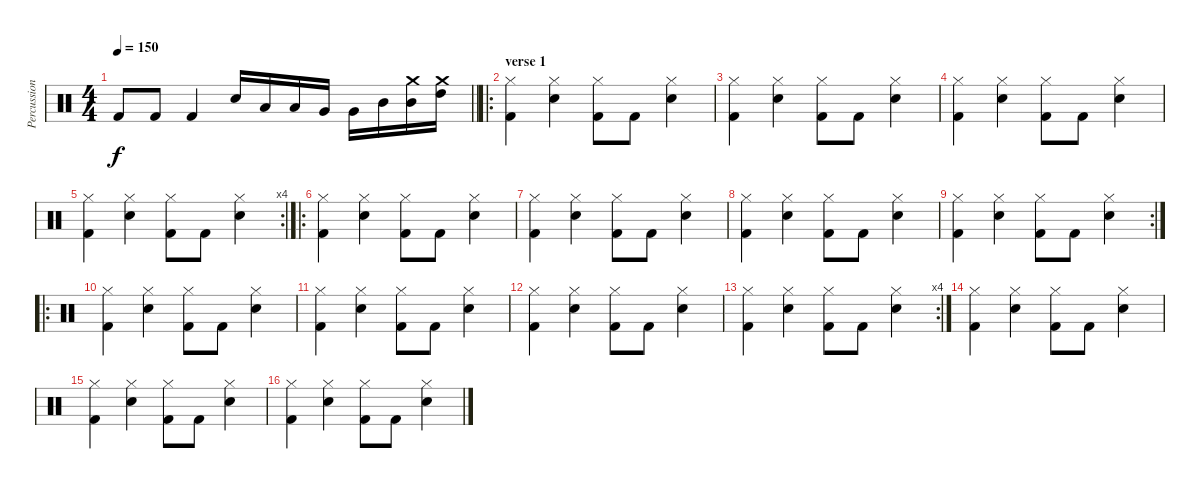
\track ("Percussions" "Percussion") {instrument percussion}
\staff {score}
\articulation defaults
\ts (4 4)
\tempo 150
\clef neutral
\barLineRight lightlight
\ks c "Kick (hit) 2".8{dy f} "Kick (hit) 2".8 "Kick (hit) 2".4 "Electric Snare (hit)".16 "Low Tom (hit)".16 "Low Tom (hit)".16 "Very Low Tom (hit)".16 "Very Low Tom (hit)".16 "Mid Tom (hit)".16
("Mid Tom (hit)" "Crash medium (hit)"{t}).16 ("High Tom (hit)" "Crash medium (hit)").16 |
\ro
\section ("" "verse 1")
("Kick (hit) 2" "Hi-Hat (closed)").4 ("Electric Snare (hit)" "Hi-Hat (closed)").4 ("Kick (hit) 2" "Hi-Hat (closed)").8 "Kick (hit) 2".8 ("Electric Snare (hit)" "Hi-Hat (closed)").4 |
("Kick (hit) 2" "Hi-Hat (closed)").4 ("Electric Snare (hit)" "Hi-Hat (closed)").4 ("Kick (hit) 2" "Hi-Hat (closed)").8 "Kick (hit) 2".8 ("Electric Snare (hit)" "Hi-Hat (closed)").4 |
("Kick (hit) 2" "Hi-Hat (closed)").4 ("Electric Snare (hit)" "Hi-Hat (closed)").4 ("Kick (hit) 2" "Hi-Hat (closed)").8 "Kick (hit) 2".8 ("Electric Snare (hit)" "Hi-Hat (closed)").4 |
\rc 4
("Kick (hit) 2" "Hi-Hat (closed)").4 ("Electric Snare (hit)" "Hi-Hat (closed)").4 ("Kick (hit) 2" "Hi-Hat (closed)").8 "Kick (hit) 2".8 ("Electric Snare (hit)" "Hi-Hat (closed)").4 |
\ro
("Kick (hit) 2" "Hi-Hat (closed)").4 ("Electric Snare (hit)" "Hi-Hat (closed)").4 ("Kick (hit) 2" "Hi-Hat (closed)").8 "Kick (hit) 2".8 ("Electric Snare (hit)" "Hi-Hat (closed)").4 |
("Kick (hit) 2" "Hi-Hat (closed)").4 ("Electric Snare (hit)" "Hi-Hat (closed)").4 ("Kick (hit) 2" "Hi-Hat (closed)").8 "Kick (hit) 2".8 ("Electric Snare (hit)" "Hi-Hat (closed)").4 |
("Kick (hit) 2" "Hi-Hat (closed)").4 ("Electric Snare (hit)" "Hi-Hat (closed)").4 ("Kick (hit) 2" "Hi-Hat (closed)").8 "Kick (hit) 2".8 ("Electric Snare (hit)" "Hi-Hat (closed)").4 |
\rc 2
("Kick (hit) 2" "Hi-Hat (closed)").4 ("Electric Snare (hit)" "Hi-Hat (closed)").4 ("Kick (hit) 2" "Hi-Hat (closed)").8 "Kick (hit) 2".8 ("Electric Snare (hit)" "Hi-Hat (closed)").4 |
\ro
("Kick (hit) 2" "Hi-Hat (closed)").4 ("Electric Snare (hit)" "Hi-Hat (closed)").4 ("Kick (hit) 2" "Hi-Hat (closed)").8 "Kick (hit) 2".8 ("Electric Snare (hit)" "Hi-Hat (closed)").4 |
("Kick (hit) 2" "Hi-Hat (closed)").4 ("Electric Snare (hit)" "Hi-Hat (closed)").4 ("Kick (hit) 2" "Hi-Hat (closed)").8 "Kick (hit) 2".8 ("Electric Snare (hit)" "Hi-Hat (closed)").4 |
("Kick (hit) 2" "Hi-Hat (closed)").4 ("Electric Snare (hit)" "Hi-Hat (closed)").4 ("Kick (hit) 2" "Hi-Hat (closed)").8 "Kick (hit) 2".8 ("Electric Snare (hit)" "Hi-Hat (closed)").4 |
\rc 4
("Kick (hit) 2" "Hi-Hat (closed)").4 ("Electric Snare (hit)" "Hi-Hat (closed)").4 ("Kick (hit) 2" "Hi-Hat (closed)").8 "Kick (hit) 2".8 ("Electric Snare (hit)" "Hi-Hat (closed)").4 |
("Kick (hit) 2" "Hi-Hat (closed)").4 ("Electric Snare (hit)" "Hi-Hat (closed)").4 ("Kick (hit) 2" "Hi-Hat (closed)").8 "Kick (hit) 2".8 ("Electric Snare (hit)" "Hi-Hat (closed)").4 |
("Kick (hit) 2" "Hi-Hat (closed)").4 ("Electric Snare (hit)" "Hi-Hat (closed)").4 ("Kick (hit) 2" "Hi-Hat (closed)").8 "Kick (hit) 2".8 ("Electric Snare (hit)" "Hi-Hat (closed)").4 |
("Kick (hit) 2" "Hi-Hat (closed)").4 ("Electric Snare (hit)" "Hi-Hat (closed)").4 ("Kick (hit) 2" "Hi-Hat (closed)").8 "Kick (hit) 2".8 ("Electric Snare (hit)" "Hi-Hat (closed)").4
